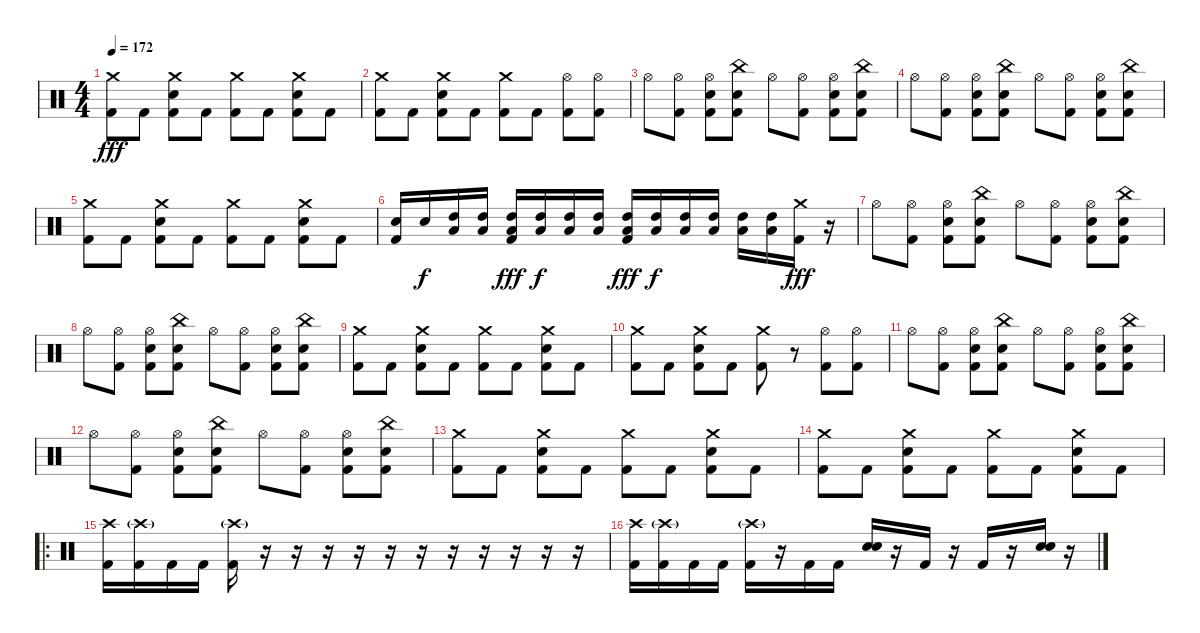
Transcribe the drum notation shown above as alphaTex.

\track (" " " ") {instrument percussion}
\staff {score}
\articulation defaults
\ts (4 4)
\tempo 172
\clef neutral
\ks c
("Crash medium (hit)" "Kick (hit) 2").8{dy fff} "Kick (hit) 2".8 ("Crash medium (hit)" "Snare (hit) 2" "Kick (hit) 2").8 "Kick (hit) 2".8 ("Crash medium (hit)" "Kick (hit) 2").8 "Kick (hit) 2".8 ("Crash medium (hit)" "Snare (hit) 2" "Kick (hit) 2").8 "Kick (hit) 2".8 |
("Crash medium (hit)" "Kick (hit) 2").8 "Kick (hit) 2".8 ("Crash medium (hit)" "Snare (hit) 2" "Kick (hit) 2").8 "Kick (hit) 2".8 ("Crash medium (hit)" "Kick (hit) 2").8 "Kick (hit) 2".8 ("Hi-Hat (open)" "Kick (hit) 2").8 ("Hi-Hat (open)" "Kick (hit) 2").8 |
"Hi-Hat (open)".8 ("Hi-Hat (open)" "Kick (hit) 2").8 ("Hi-Hat (open)" "Snare (hit) 2" "Kick (hit) 2").8 ("China (hit)" "Snare (hit) 2" "Kick (hit) 2").8 "Hi-Hat (open)".8 ("Hi-Hat (open)" "Kick (hit) 2").8 ("Hi-Hat (open)" "Snare (hit) 2" "Kick (hit) 2").8 ("China (hit)" "Snare (hit) 2" "Kick (hit) 2").8 |
"Hi-Hat (open)".8 ("Hi-Hat (open)" "Kick (hit) 2").8 ("Hi-Hat (open)" "Snare (hit) 2" "Kick (hit) 2").8 ("China (hit)" "Snare (hit) 2" "Kick (hit) 2").8 "Hi-Hat (open)".8 ("Hi-Hat (open)" "Kick (hit) 2").8 ("Hi-Hat (open)" "Snare (hit) 2" "Kick (hit) 2").8 ("China (hit)" "Snare (hit) 2" "Kick (hit) 2").8 |
("Crash medium (hit)" "Kick (hit) 2").8 "Kick (hit) 2".8 ("Crash medium (hit)" "Snare (hit) 2" "Kick (hit) 2").8 "Kick (hit) 2".8 ("Crash medium (hit)" "Kick (hit) 2").8 "Kick (hit) 2".8 ("Crash medium (hit)" "Snare (hit) 2" "Kick (hit) 2").8 "Kick (hit) 2".8 |
("Snare (hit) 2" "Kick (hit) 2").16 "Snare (hit) 2".16{dy f} ("High Tom (hit)" "Low Tom (hit)").16 ("High Tom (hit)" "Low Tom (hit)").16 ("High Tom (hit)" "Low Tom (hit)" "Kick (hit) 2").16{dy fff} ("High Tom (hit)" "Low Tom (hit)").16{dy f} ("High Tom (hit)" "Low Floor Tom (hit)").16 ("High Tom (hit)" "Low Floor Tom (hit)").16 ("High Tom (hit)" "Low Floor Tom (hit)" "Kick (hit) 2").16{dy fff} ("High Tom (hit)" "Low Floor Tom (hit)").16{dy f} ("High Tom (hit)" "Low Floor Tom (hit)").16 ("High Tom (hit)" "Low Floor Tom (hit)").16 ("High Tom (hit)" "Low Floor Tom (hit)").16 ("High Tom (hit)" "Low Floor Tom (hit)").16 ("Crash medium (hit)" "Kick (hit) 2").16{dy fff} r.16 |
"Hi-Hat (open)".8 ("Hi-Hat (open)" "Kick (hit) 2").8 ("Hi-Hat (open)" "Snare (hit) 2" "Kick (hit) 2").8 ("China (hit)" "Snare (hit) 2" "Kick (hit) 2").8 "Hi-Hat (open)".8 ("Hi-Hat (open)" "Kick (hit) 2").8 ("Hi-Hat (open)" "Snare (hit) 2" "Kick (hit) 2").8 ("China (hit)" "Snare (hit) 2" "Kick (hit) 2").8 |
"Hi-Hat (open)".8 ("Hi-Hat (open)" "Kick (hit) 2").8 ("Hi-Hat (open)" "Snare (hit) 2" "Kick (hit) 2").8 ("China (hit)" "Snare (hit) 2" "Kick (hit) 2").8 "Hi-Hat (open)".8 ("Hi-Hat (open)" "Kick (hit) 2").8 ("Hi-Hat (open)" "Snare (hit) 2" "Kick (hit) 2").8 ("China (hit)" "Snare (hit) 2" "Kick (hit) 2").8 |
("Crash medium (hit)" "Kick (hit) 2").8 "Kick (hit) 2".8 ("Crash medium (hit)" "Snare (hit) 2" "Kick (hit) 2").8 "Kick (hit) 2".8 ("Crash medium (hit)" "Kick (hit) 2").8 "Kick (hit) 2".8 ("Crash medium (hit)" "Snare (hit) 2" "Kick (hit) 2").8 "Kick (hit) 2".8 |
("Crash medium (hit)" "Kick (hit) 2").8 "Kick (hit) 2".8 ("Crash medium (hit)" "Snare (hit) 2" "Kick (hit) 2").8 "Kick (hit) 2".8 ("Crash medium (hit)" "Kick (hit) 2").8 r.8 ("Hi-Hat (open)" "Kick (hit) 2").8 ("Hi-Hat (open)" "Kick (hit) 2").8 |
"Hi-Hat (open)".8 ("Hi-Hat (open)" "Kick (hit) 2").8 ("Hi-Hat (open)" "Snare (hit) 2" "Kick (hit) 2").8 ("China (hit)" "Snare (hit) 2" "Kick (hit) 2").8 "Hi-Hat (open)".8 ("Hi-Hat (open)" "Kick (hit) 2").8 ("Hi-Hat (open)" "Snare (hit) 2" "Kick (hit) 2").8 ("China (hit)" "Snare (hit) 2" "Kick (hit) 2").8 |
"Hi-Hat (open)".8 ("Hi-Hat (open)" "Kick (hit) 2").8 ("Hi-Hat (open)" "Snare (hit) 2" "Kick (hit) 2").8 ("China (hit)" "Snare (hit) 2" "Kick (hit) 2").8 "Hi-Hat (open)".8 ("Hi-Hat (open)" "Kick (hit) 2").8 ("Hi-Hat (open)" "Snare (hit) 2" "Kick (hit) 2").8 ("China (hit)" "Snare (hit) 2" "Kick (hit) 2").8 |
("Crash medium (hit)" "Kick (hit) 2").8 "Kick (hit) 2".8 ("Crash medium (hit)" "Snare (hit) 2" "Kick (hit) 2").8 "Kick (hit) 2".8 ("Crash medium (hit)" "Kick (hit) 2").8 "Kick (hit) 2".8 ("Crash medium (hit)" "Snare (hit) 2" "Kick (hit) 2").8 "Kick (hit) 2".8 |
("Crash medium (hit)" "Kick (hit) 2").8 "Kick (hit) 2".8 ("Crash medium (hit)" "Snare (hit) 2" "Kick (hit) 2").8 "Kick (hit) 2".8 ("Crash medium (hit)" "Kick (hit) 2").8 "Kick (hit) 2".8 ("Crash medium (hit)" "Snare (hit) 2" "Kick (hit) 2").8 "Kick (hit) 2".8 |
\ro
("Crash high (hit)" "Kick (hit) 2").16 ("Crash high (hit)"{g} "Kick (hit) 2").16 "Kick (hit) 2".16 "Kick (hit) 2".16 ("Crash high (hit)"{g} "Kick (hit) 2").16 r.16 r.16 r.16 r.16 r.16 r.16 r.16 r.16 r.16 r.16 r.16 |
("Crash high (hit)" "Kick (hit) 2").16 ("Crash high (hit)"{g} "Kick (hit) 2").16 "Kick (hit) 2".16 "Kick (hit) 2".16 ("Crash high (hit)"{g} "Kick (hit) 2").16 r.16 "Kick (hit) 2".16 "Kick (hit) 2".16 ("Snare (hit) 2" "Snare (hit) 2").16 r.16 "Kick (hit) 2".16 r.16 "Kick (hit) 2".16 r.16 ("Snare (hit) 2" "Snare (hit) 2").16 r.16
